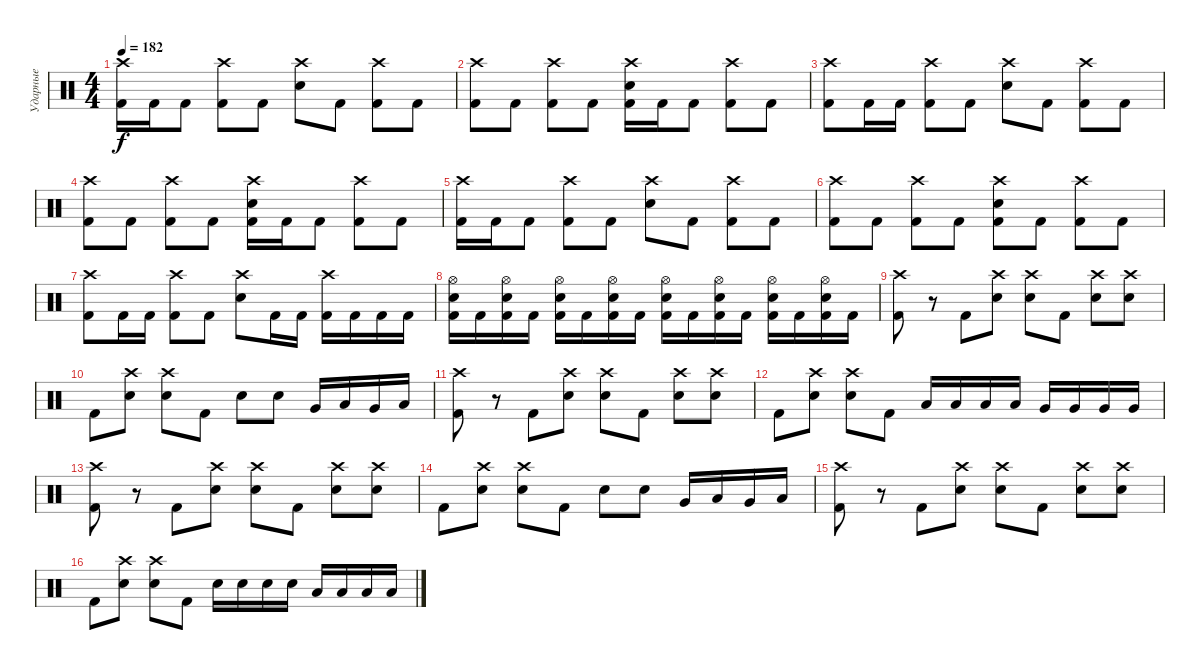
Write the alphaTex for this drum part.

\track ("Ударные" "Ударные") {instrument percussion}
\staff {score}
\articulation defaults
\ts (4 4)
\tempo 182
\clef neutral
\ks c
("Crash high (hit)" "Kick (hit) 2").16{dy f} "Kick (hit) 2".16 "Kick (hit) 2".8 ("Crash high (hit)" "Kick (hit) 2").8 "Kick (hit) 2".8 ("Crash high (hit)" "Electric Snare (hit)").8 "Kick (hit) 2".8 ("Crash high (hit)" "Kick (hit) 2").8 "Kick (hit) 2".8 |
("Crash high (hit)" "Kick (hit) 2").8 "Kick (hit) 2".8 ("Crash high (hit)" "Kick (hit) 2").8 "Kick (hit) 2".8 ("Crash high (hit)" "Electric Snare (hit)" "Kick (hit) 2").16 "Kick (hit) 2".16 "Kick (hit) 2".8 ("Crash high (hit)" "Kick (hit) 2").8 "Kick (hit) 2".8 |
("Crash high (hit)" "Kick (hit) 2").8 "Kick (hit) 2".16 "Kick (hit) 2".16 ("Crash high (hit)" "Kick (hit) 2").8 "Kick (hit) 2".8 ("Crash high (hit)" "Electric Snare (hit)").8 "Kick (hit) 2".8 ("Crash high (hit)" "Kick (hit) 2").8 "Kick (hit) 2".8 |
("Crash high (hit)" "Kick (hit) 2").8 "Kick (hit) 2".8 ("Crash high (hit)" "Kick (hit) 2").8 "Kick (hit) 2".8 ("Crash high (hit)" "Electric Snare (hit)" "Kick (hit) 2").16 "Kick (hit) 2".16 "Kick (hit) 2".8 ("Crash high (hit)" "Kick (hit) 2").8 "Kick (hit) 2".8 |
("Crash high (hit)" "Kick (hit) 2").16 "Kick (hit) 2".16 "Kick (hit) 2".8 ("Crash high (hit)" "Kick (hit) 2").8 "Kick (hit) 2".8 ("Crash high (hit)" "Electric Snare (hit)").8 "Kick (hit) 2".8 ("Crash high (hit)" "Kick (hit) 2").8 "Kick (hit) 2".8 |
("Crash high (hit)" "Kick (hit) 2").8 "Kick (hit) 2".8 ("Crash high (hit)" "Kick (hit) 2").8 "Kick (hit) 2".8 ("Crash high (hit)" "Electric Snare (hit)" "Kick (hit) 2").8 "Kick (hit) 2".8 ("Crash high (hit)" "Kick (hit) 2").8 "Kick (hit) 2".8 |
("Crash high (hit)" "Kick (hit) 2").8 "Kick (hit) 2".16 "Kick (hit) 2".16 ("Crash high (hit)" "Kick (hit) 2").8 "Kick (hit) 2".8 ("Crash high (hit)" "Electric Snare (hit)").8 "Kick (hit) 2".16 "Kick (hit) 2".16 ("Crash high (hit)" "Kick (hit) 2").16 "Kick (hit) 2".16 "Kick (hit) 2".16 "Kick (hit) 2".16 |
("Hi-Hat (open)" "Electric Snare (hit)" "Kick (hit) 2").16 "Kick (hit) 2".16 ("Hi-Hat (open)" "Electric Snare (hit)" "Kick (hit) 2").16 "Kick (hit) 2".16 ("Hi-Hat (open)" "Electric Snare (hit)" "Kick (hit) 2").16 "Kick (hit) 2".16 ("Hi-Hat (open)" "Electric Snare (hit)" "Kick (hit) 2").16 "Kick (hit) 2".16 ("Hi-Hat (open)" "Electric Snare (hit)" "Kick (hit) 2").16 "Kick (hit) 2".16 ("Hi-Hat (open)" "Electric Snare (hit)" "Kick (hit) 2").16 "Kick (hit) 2".16 ("Hi-Hat (open)" "Electric Snare (hit)" "Kick (hit) 2").16 "Kick (hit) 2".16 ("Hi-Hat (open)" "Electric Snare (hit)" "Kick (hit) 2").16 "Kick (hit) 2".16 |
("Crash high (hit)" "Kick (hit) 2").8 r.8 "Kick (hit) 2".8 ("Crash high (hit)" "Electric Snare (hit)").8 ("Crash high (hit)" "Electric Snare (hit)").8 "Kick (hit) 2".8 ("Crash high (hit)" "Electric Snare (hit)").8 ("Crash high (hit)" "Electric Snare (hit)").8 |
"Kick (hit) 2".8 ("Crash high (hit)" "Electric Snare (hit)").8 ("Crash high (hit)" "Electric Snare (hit)").8 "Kick (hit) 2".8 "Electric Snare (hit)".8 "Electric Snare (hit)".8 "Very Low Tom (hit)".16 "Low Tom (hit)".16 "Very Low Tom (hit)".16 "Low Tom (hit)".16 |
("Crash high (hit)" "Kick (hit) 2").8 r.8 "Kick (hit) 2".8 ("Crash high (hit)" "Electric Snare (hit)").8 ("Crash high (hit)" "Electric Snare (hit)").8 "Kick (hit) 2".8 ("Crash high (hit)" "Electric Snare (hit)").8 ("Crash high (hit)" "Electric Snare (hit)").8 |
"Kick (hit) 2".8 ("Crash high (hit)" "Electric Snare (hit)").8 ("Crash high (hit)" "Electric Snare (hit)").8 "Kick (hit) 2".8 "Low Tom (hit)".16 "Low Tom (hit)".16 "Low Tom (hit)".16 "Low Tom (hit)".16 "Very Low Tom (hit)".16 "Very Low Tom (hit)".16 "Very Low Tom (hit)".16 "Very Low Tom (hit)".16 |
("Crash high (hit)" "Kick (hit) 2").8 r.8 "Kick (hit) 2".8 ("Crash high (hit)" "Electric Snare (hit)").8 ("Crash high (hit)" "Electric Snare (hit)").8 "Kick (hit) 2".8 ("Crash high (hit)" "Electric Snare (hit)").8 ("Crash high (hit)" "Electric Snare (hit)").8 |
"Kick (hit) 2".8 ("Crash high (hit)" "Electric Snare (hit)").8 ("Crash high (hit)" "Electric Snare (hit)").8 "Kick (hit) 2".8 "Electric Snare (hit)".8 "Electric Snare (hit)".8 "Very Low Tom (hit)".16 "Low Tom (hit)".16 "Very Low Tom (hit)".16 "Low Tom (hit)".16 |
("Crash high (hit)" "Kick (hit) 2").8 r.8 "Kick (hit) 2".8 ("Crash high (hit)" "Electric Snare (hit)").8 ("Crash high (hit)" "Electric Snare (hit)").8 "Kick (hit) 2".8 ("Crash high (hit)" "Electric Snare (hit)").8 ("Crash high (hit)" "Electric Snare (hit)").8 |
"Kick (hit) 2".8 ("Crash high (hit)" "Electric Snare (hit)").8 ("Crash high (hit)" "Electric Snare (hit)").8 "Kick (hit) 2".8 "Electric Snare (hit)".16 "Electric Snare (hit)".16 "Electric Snare (hit)".16 "Electric Snare (hit)".16 "Low Tom (hit)".16 "Low Tom (hit)".16 "Low Tom (hit)".16 "Low Tom (hit)".16
